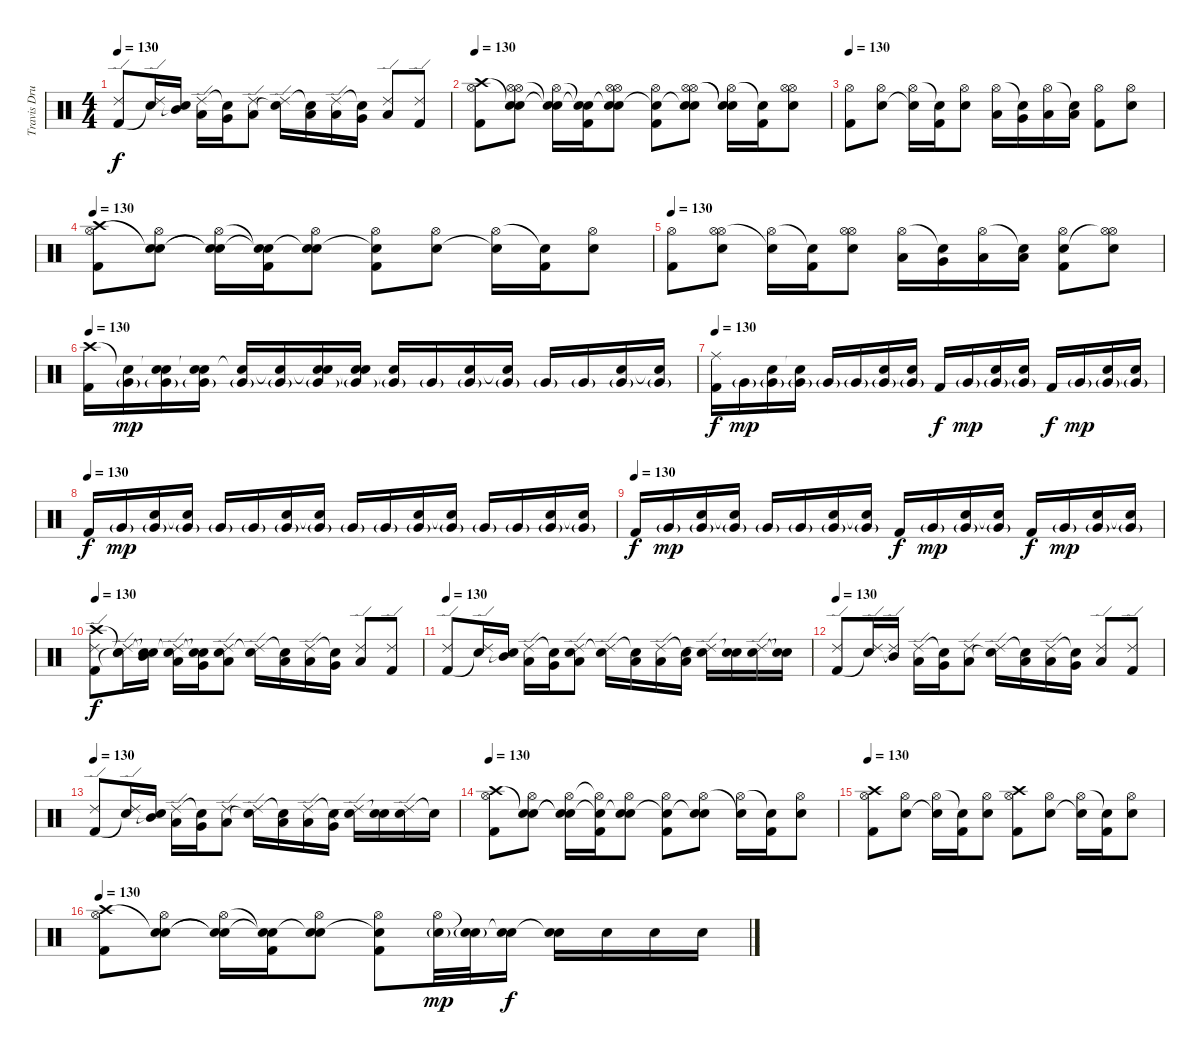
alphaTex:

\track ("Travis Drums" "Travis Dru") {instrument percussion}
\staff {score}
\articulation defaults
\ts (4 4)
\tempo 130
\clef neutral
\ks c
("Ride (edge) 2" "Kick (hit) 2").8{dy f} ("Ride (edge) 2" "Snare (hit)"{t}).16 ("Snare (hit)"{t} "Mid Tom (hit)").16 ("Ride (edge) 2" "Low Tom (hit)").16 ("Snare (hit)"{t} "Very Low Tom (hit)").16 ("Ride (edge) 2" "Low Floor Tom (hit)").8 ("Ride (edge) 2" "Snare (hit)"{t}).16 ("Snare (hit)"{t} "Low Tom (hit)").16 ("Ride (edge) 2" "Low Tom (hit)").16 ("Snare (hit)"{t} "Very Low Tom (hit)").16 ("Ride (edge) 2" "Low Floor Tom (hit)").8 ("Ride (edge) 2" "Kick (hit) 2").8 |
\tempo 130
("Crash high (hit)" "Hi-Hat (open)" "Kick (hit) 2").8 ("Snare (hit)"{t} "Hi-Hat (open)" "Hi-Hat (open)" "Electric Snare (hit)").8 ("Snare (hit)"{t} "Hi-Hat (open)" "Snare (hit)"{t}).16 ("Snare (hit)"{t} "Snare (hit)"{t} "Kick (hit) 2").16 ("Snare (hit)"{t} "Hi-Hat (open)" "Hi-Hat (open)" "Electric Snare (hit)").8 ("Snare (hit)"{t} "Hi-Hat (open)" "Kick (hit) 2").8 ("Snare (hit)"{t} "Hi-Hat (open)" "Hi-Hat (open)" "Electric Snare (hit)").8 ("Hi-Hat (open)" "Snare (hit)"{t} "Snare (hit)"{t}).16 ("Snare (hit)"{t} "Kick (hit) 2").16 ("Hi-Hat (open)" "Hi-Hat (open)" "Electric Snare (hit)").8 |
\tempo 130
("Hi-Hat (open)" "Kick (hit) 2").8 ("Hi-Hat (open)" "Electric Snare (hit)").8 ("Hi-Hat (open)" "Snare (hit)"{t}).16 ("Snare (hit)"{t} "Kick (hit) 2").16 ("Hi-Hat (open)" "Electric Snare (hit)").8 ("Hi-Hat (open)" "Low Tom (hit)").16 ("Snare (hit)"{t} "Very Low Tom (hit)").16 ("Hi-Hat (open)" "Low Floor Tom (hit)").16 ("Snare (hit)"{t} "Low Floor Tom (hit)").16 ("Hi-Hat (open)" "Kick (hit) 2").8 ("Hi-Hat (open)" "Electric Snare (hit)").8 |
\tempo 130
("Crash high (hit)" "Hi-Hat (open)" "Kick (hit) 2").8 ("Snare (hit)"{t} "Hi-Hat (open)" "Electric Snare (hit)").8 ("Snare (hit)"{t} "Hi-Hat (open)" "Snare (hit)"{t}).16 ("Snare (hit)"{t} "Snare (hit)"{t} "Kick (hit) 2").16 ("Snare (hit)"{t} "Hi-Hat (open)" "Electric Snare (hit)").8 ("Snare (hit)"{t} "Hi-Hat (open)" "Kick (hit) 2").8 ("Hi-Hat (open)" "Electric Snare (hit)").8 ("Hi-Hat (open)" "Snare (hit)"{t}).16 ("Snare (hit)"{t} "Kick (hit) 2").16 ("Hi-Hat (open)" "Electric Snare (hit)").8 |
\tempo 130
("Hi-Hat (open)" "Kick (hit) 2").8 ("Hi-Hat (open)" "Hi-Hat (open)" "Electric Snare (hit)").8 ("Hi-Hat (open)" "Snare (hit)"{t}).16 ("Snare (hit)"{t} "Kick (hit) 2").16 ("Hi-Hat (open)" "Hi-Hat (open)" "Electric Snare (hit)").8 ("Hi-Hat (open)" "Low Tom (hit)").16 ("Snare (hit)"{t} "Very Low Tom (hit)").16 ("Hi-Hat (open)" "Low Floor Tom (hit)").16 ("Snare (hit)"{t} "Low Floor Tom (hit)").16 ("Hi-Hat (open)" "Electric Snare (hit)" "Kick (hit) 2").8 ("Hi-Hat (open)" "Hi-Hat (open)"{t} "Electric Snare (hit)").8 |
\tempo 130
("Crash high (hit)" "Kick (hit) 2").16 ("Snare (hit)"{t} "Very Low Tom (hit)"{g}).16{dy mp} ("Snare (hit)"{t} "Electric Snare (hit)" "Very Low Tom (hit)"{g}).16 ("Snare (hit)"{t} "Snare (hit)"{t} "Very Low Tom (hit)"{g}).16 ("Snare (hit)"{t} "Very Low Tom (hit)"{g}).16 ("Snare (hit)"{t} "Very Low Tom (hit)"{g}).16 ("Snare (hit)"{t} "Electric Snare (hit)" "Very Low Tom (hit)"{g}).16 ("Snare (hit)"{t} "Snare (hit)"{t} "Very Low Tom (hit)"{g}).16 ("Snare (hit)"{t} "Very Low Tom (hit)"{g}).16 "Very Low Tom (hit)"{g}.16 ("Electric Snare (hit)" "Very Low Tom (hit)"{g}).16 ("Snare (hit)"{t} "Very Low Tom (hit)"{g}).16 "Very Low Tom (hit)"{g}.16 "Very Low Tom (hit)"{g}.16 ("Electric Snare (hit)" "Very Low Tom (hit)"{g}).16 ("Snare (hit)"{t} "Very Low Tom (hit)"{g}).16 |
\tempo 130
("Ride (middle)" "Kick (hit) 2").16{dy f} "Very Low Tom (hit)"{g}.16{dy mp} ("Electric Snare (hit)" "Very Low Tom (hit)"{g}).16 ("Snare (hit)"{t} "Very Low Tom (hit)"{g}).16 "Very Low Tom (hit)"{g}.16 "Very Low Tom (hit)"{g}.16 ("Electric Snare (hit)" "Very Low Tom (hit)"{g}).16 ("Snare (hit)"{t} "Very Low Tom (hit)"{g}).16 "Kick (hit) 2".16{dy f} "Very Low Tom (hit)"{g}.16{dy mp} ("Electric Snare (hit)" "Very Low Tom (hit)"{g}).16 ("Snare (hit)"{t} "Very Low Tom (hit)"{g}).16 "Kick (hit) 2".16{dy f} "Very Low Tom (hit)"{g}.16{dy mp} ("Electric Snare (hit)" "Very Low Tom (hit)"{g}).16 ("Snare (hit)"{t} "Very Low Tom (hit)"{g}).16 |
\tempo (130)
"Kick (hit) 2".16{dy f} "Very Low Tom (hit)"{g}.16{dy mp} ("Electric Snare (hit)" "Very Low Tom (hit)"{g}).16 ("Snare (hit)"{t} "Very Low Tom (hit)"{g}).16 "Very Low Tom (hit)"{g}.16 "Very Low Tom (hit)"{g}.16 ("Electric Snare (hit)" "Very Low Tom (hit)"{g}).16 ("Snare (hit)"{t} "Very Low Tom (hit)"{g}).16 "Very Low Tom (hit)"{g}.16 "Very Low Tom (hit)"{g}.16 ("Electric Snare (hit)" "Very Low Tom (hit)"{g}).16 ("Snare (hit)"{t} "Very Low Tom (hit)"{g}).16 "Very Low Tom (hit)"{g}.16 "Very Low Tom (hit)"{g}.16 ("Electric Snare (hit)" "Very Low Tom (hit)"{g}).16 ("Snare (hit)"{t} "Very Low Tom (hit)"{g}).16 |
\tempo (130)
"Kick (hit) 2".16{dy f} "Very Low Tom (hit)"{g}.16{dy mp} ("Electric Snare (hit)" "Very Low Tom (hit)"{g}).16 ("Snare (hit)"{t} "Very Low Tom (hit)"{g}).16 "Very Low Tom (hit)"{g}.16 "Very Low Tom (hit)"{g}.16 ("Electric Snare (hit)" "Very Low Tom (hit)"{g}).16 ("Snare (hit)"{t} "Very Low Tom (hit)"{g}).16 "Kick (hit) 2".16{dy f} "Very Low Tom (hit)"{g}.16{dy mp} ("Electric Snare (hit)" "Very Low Tom (hit)"{g}).16 ("Snare (hit)"{t} "Very Low Tom (hit)"{g}).16 "Kick (hit) 2".16{dy f} "Very Low Tom (hit)"{g}.16{dy mp} ("Electric Snare (hit)" "Very Low Tom (hit)"{g}).16 ("Snare (hit)"{t} "Very Low Tom (hit)"{g}).16 |
\tempo 130
("Crash high (hit)" "Ride (edge) 2" "Kick (hit) 2").8{dy f} ("Snare (hit)"{t} "Ride (edge) 2" "Snare (hit)"{t}).16 ("Snare (hit)"{t} "Snare (hit)"{t} "Mid Tom (hit)").16 ("Snare (hit)"{t} "Ride (edge) 2" "Low Tom (hit)").16 ("Snare (hit)"{t} "Snare (hit)"{t} "Very Low Tom (hit)").16 ("Ride (edge) 2" "Electric Snare (hit)" "Low Floor Tom (hit)").8 ("Ride (edge) 2" "Snare (hit)"{t}).16 ("Snare (hit)"{t} "Low Tom (hit)").16 ("Ride (edge) 2" "Low Tom (hit)").16 ("Snare (hit)"{t} "Very Low Tom (hit)").16 ("Ride (edge) 2" "Low Floor Tom (hit)").8 ("Ride (edge) 2" "Kick (hit) 2").8 |
\tempo 130
("Ride (edge) 2" "Kick (hit) 2").8 ("Ride (edge) 2" "Snare (hit)"{t}).16 ("Snare (hit)"{t} "Mid Tom (hit)").16 ("Ride (edge) 2" "Low Tom (hit)").16 ("Snare (hit)"{t} "Very Low Tom (hit)").16 ("Ride (edge) 2" "Electric Snare (hit)" "Low Floor Tom (hit)").8 ("Ride (edge) 2" "Snare (hit)"{t}).16 ("Snare (hit)"{t} "Low Tom (hit)").16 ("Ride (edge) 2" "Low Tom (hit)").16 ("Snare (hit)"{t} "Low Tom (hit)").16 ("Ride (edge) 2" "Electric Snare (hit)"{t}).16 ("Snare (hit)"{t} "Electric Snare (hit)").16 ("Ride (edge) 2" "Electric Snare (hit)").16 ("Snare (hit)"{t} "Snare (hit)"{t}).16 |
\tempo 130
("Ride (edge) 2" "Kick (hit) 2").8 ("Ride (edge) 2" "Snare (hit)"{t}).16 ("Ride (edge) 2"{t} "Mid Tom (hit)").16 ("Ride (edge) 2" "Low Tom (hit)").16 ("Snare (hit)"{t} "Very Low Tom (hit)").16 ("Ride (edge) 2" "Low Floor Tom (hit)").8 ("Ride (edge) 2" "Snare (hit)"{t}).16 ("Snare (hit)"{t} "Low Tom (hit)").16 ("Ride (edge) 2" "Low Tom (hit)").16 ("Snare (hit)"{t} "Very Low Tom (hit)").16 ("Ride (edge) 2" "Low Floor Tom (hit)").8 ("Ride (edge) 2" "Kick (hit) 2").8 |
\tempo 130
("Ride (edge) 2" "Kick (hit) 2").8 ("Ride (edge) 2" "Snare (hit)"{t}).16 ("Snare (hit)"{t} "Mid Tom (hit)").16 ("Ride (edge) 2" "Low Tom (hit)").16 ("Snare (hit)"{t} "Very Low Tom (hit)").16 ("Ride (edge) 2" "Low Floor Tom (hit)").8 ("Ride (edge) 2" "Snare (hit)"{t}).16 ("Snare (hit)"{t} "Low Tom (hit)").16 ("Ride (edge) 2" "Low Tom (hit)").16 ("Snare (hit)"{t} "Very Low Tom (hit)").16 ("Ride (edge) 2" "Snare (hit)"{t}).16 ("Snare (hit)"{t} "Electric Snare (hit)").16 ("Ride (edge) 2" "Electric Snare (hit)").16 "Snare (hit)"{t}.16 |
\tempo 130
("Crash high (hit)" "Hi-Hat (open)" "Kick (hit) 2").8 ("Snare (hit)"{t} "Hi-Hat (open)" "Electric Snare (hit)").8 ("Snare (hit)"{t} "Hi-Hat (open)" "Snare (hit)"{t}).16 ("Snare (hit)"{t} "Hi-Hat (open)"{t} "Kick (hit) 2").16 ("Snare (hit)"{t} "Hi-Hat (open)" "Electric Snare (hit)").8 ("Snare (hit)"{t} "Hi-Hat (open)" "Kick (hit) 2").8 ("Snare (hit)"{t} "Hi-Hat (open)" "Electric Snare (hit)").8 ("Hi-Hat (open)" "Snare (hit)"{t}).16 ("Snare (hit)"{t} "Kick (hit) 2").16 ("Hi-Hat (open)" "Electric Snare (hit)").8 |
\tempo 130
("Crash high (hit)" "Hi-Hat (open)" "Kick (hit) 2").8 ("Hi-Hat (open)" "Electric Snare (hit)").8 ("Hi-Hat (open)" "Snare (hit)"{t}).16 ("Snare (hit)"{t} "Kick (hit) 2").16 ("Hi-Hat (open)" "Electric Snare (hit)").8 ("Crash high (hit)" "Hi-Hat (open)" "Kick (hit) 2").8 ("Hi-Hat (open)" "Electric Snare (hit)").8 ("Hi-Hat (open)" "Snare (hit)"{t}).16 ("Snare (hit)"{t} "Kick (hit) 2").16 ("Hi-Hat (open)" "Electric Snare (hit)").8 |
\tempo 130
("Crash high (hit)" "Hi-Hat (open)" "Kick (hit) 2").8 ("Snare (hit)"{t} "Hi-Hat (open)" "Electric Snare (hit)").8 ("Snare (hit)"{t} "Hi-Hat (open)" "Snare (hit)"{t}).16 ("Snare (hit)"{t} "Snare (hit)"{t} "Kick (hit) 2").16 ("Snare (hit)"{t} "Hi-Hat (open)" "Electric Snare (hit)").8 ("Snare (hit)"{t} "Hi-Hat (open)" "Kick (hit) 2").8 ("Hi-Hat (open)" "Electric Snare (hit)"{g}).32{dy mp} ("Snare (hit)"{t} "Electric Snare (hit)"{g}).32 ("Snare (hit)"{t} "Electric Snare (hit)").16{dy f} ("Snare (hit)"{t} "Electric Snare (hit)").16 "Electric Snare (hit)".16 "Electric Snare (hit)".16 "Electric Snare (hit)".16
